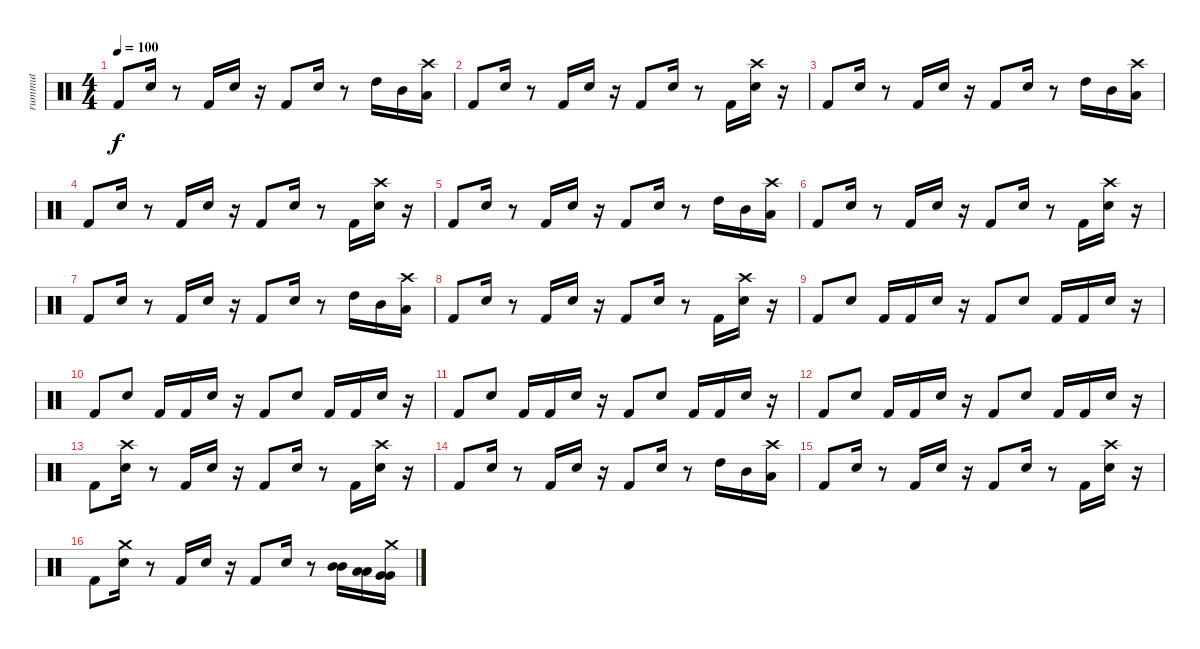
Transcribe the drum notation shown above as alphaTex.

\track ("rummut" "rummut") {instrument percussion}
\staff {score}
\articulation defaults
\ts (4 4)
\tempo 100
\clef neutral
\ks c "Kick (hit) 2".8{dy f} "Snare (hit) 2".16
r.8 "Kick (hit) 2".16 "Snare (hit) 2".16 r.16 "Kick (hit) 2".8 "Snare (hit) 2".16 r.8 "High Tom (hit)".16 "Mid Tom (hit)".16 ("Crash high (hit)" "Low Tom (hit)").16 |
"Kick (hit) 2".8 "Snare (hit) 2".16 r.8 "Kick (hit) 2".16 "Snare (hit) 2".16 r.16 "Kick (hit) 2".8 "Snare (hit) 2".16 r.8 "Kick (hit) 2".16 ("Crash high (hit)" "Snare (hit) 2").16 r.16 |
"Kick (hit) 2".8 "Snare (hit) 2".16 r.8 "Kick (hit) 2".16 "Snare (hit) 2".16 r.16 "Kick (hit) 2".8 "Snare (hit) 2".16 r.8 "High Tom (hit)".16 "Mid Tom (hit)".16 ("Crash high (hit)" "Low Tom (hit)").16 |
"Kick (hit) 2".8 "Snare (hit) 2".16 r.8 "Kick (hit) 2".16 "Snare (hit) 2".16 r.16 "Kick (hit) 2".8 "Snare (hit) 2".16 r.8 "Kick (hit) 2".16 ("Crash high (hit)" "Snare (hit) 2").16 r.16 |
"Kick (hit) 2".8 "Snare (hit) 2".16 r.8 "Kick (hit) 2".16 "Snare (hit) 2".16 r.16 "Kick (hit) 2".8 "Snare (hit) 2".16 r.8 "High Tom (hit)".16 "Mid Tom (hit)".16 ("Crash high (hit)" "Low Tom (hit)").16 |
"Kick (hit) 2".8 "Snare (hit) 2".16 r.8 "Kick (hit) 2".16 "Snare (hit) 2".16 r.16 "Kick (hit) 2".8 "Snare (hit) 2".16 r.8 "Kick (hit) 2".16 ("Crash high (hit)" "Snare (hit) 2").16 r.16 |
"Kick (hit) 2".8 "Snare (hit) 2".16 r.8 "Kick (hit) 2".16 "Snare (hit) 2".16 r.16 "Kick (hit) 2".8 "Snare (hit) 2".16 r.8 "High Tom (hit)".16 "Mid Tom (hit)".16 ("Crash high (hit)" "Low Tom (hit)").16 |
"Kick (hit) 2".8 "Snare (hit) 2".16 r.8 "Kick (hit) 2".16 "Snare (hit) 2".16 r.16 "Kick (hit) 2".8 "Snare (hit) 2".16 r.8 "Kick (hit) 2".16 ("Crash high (hit)" "Snare (hit) 2").16 r.16 |
"Kick (hit) 2".8 "Snare (hit) 2".8 "Kick (hit) 2".16 "Kick (hit) 2".16 "Snare (hit) 2".16 r.16 "Kick (hit) 2".8 "Snare (hit) 2".8 "Kick (hit) 2".16 "Kick (hit) 2".16 "Snare (hit) 2".16 r.16 |
"Kick (hit) 2".8 "Snare (hit) 2".8 "Kick (hit) 2".16 "Kick (hit) 2".16 "Snare (hit) 2".16 r.16 "Kick (hit) 2".8 "Snare (hit) 2".8 "Kick (hit) 2".16 "Kick (hit) 2".16 "Snare (hit) 2".16 r.16 |
"Kick (hit) 2".8 "Snare (hit) 2".8 "Kick (hit) 2".16 "Kick (hit) 2".16 "Snare (hit) 2".16 r.16 "Kick (hit) 2".8 "Snare (hit) 2".8 "Kick (hit) 2".16 "Kick (hit) 2".16 "Snare (hit) 2".16 r.16 |
"Kick (hit) 2".8 "Snare (hit) 2".8 "Kick (hit) 2".16 "Kick (hit) 2".16 "Snare (hit) 2".16 r.16 "Kick (hit) 2".8 "Snare (hit) 2".8 "Kick (hit) 2".16 "Kick (hit) 2".16 "Snare (hit) 2".16 r.16 |
"Kick (hit) 2".8 ("Crash high (hit)" "Snare (hit) 2").16 r.8 "Kick (hit) 2".16 "Snare (hit) 2".16 r.16 "Kick (hit) 2".8 "Snare (hit) 2".16 r.8 "Kick (hit) 2".16 ("Crash high (hit)" "Snare (hit) 2").16 r.16 |
"Kick (hit) 2".8 "Snare (hit) 2".16 r.8 "Kick (hit) 2".16 "Snare (hit) 2".16 r.16 "Kick (hit) 2".8 "Snare (hit) 2".16 r.8 "High Tom (hit)".16 "Mid Tom (hit)".16 ("Crash high (hit)" "Low Tom (hit)").16 |
"Kick (hit) 2".8 "Snare (hit) 2".16 r.8 "Kick (hit) 2".16 "Snare (hit) 2".16 r.16 "Kick (hit) 2".8 "Snare (hit) 2".16 r.8 "Kick (hit) 2".16 ("Crash high (hit)" "Snare (hit) 2").16 r.16 |
"Kick (hit) 2".8 ("Crash medium (hit)" "Snare (hit) 2").16 r.8 "Kick (hit) 2".16 "Snare (hit) 2".16 r.16 "Kick (hit) 2".8 "Snare (hit) 2".16 r.8 ("Mid Tom (hit)" "Mid Tom (hit)").16 ("Low Tom (hit)" "Low Tom (hit)").16 ("Crash medium (hit)" "Very Low Tom (hit)" "Very Low Tom (hit)").16
